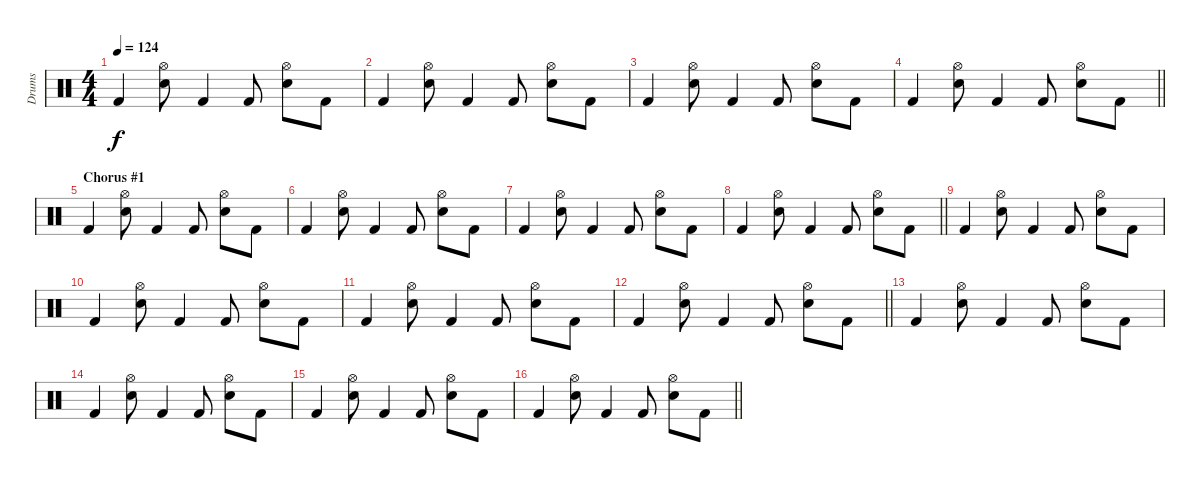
\track ("Drums" "Drums") {instrument percussion}
\staff {score}
\articulation defaults
\ts (4 4)
\tempo 124
\clef neutral
\ks c "Kick (hit) 2".4{dy f}
("Hi-Hat (open)" "Snare (hit) 2").8 "Kick (hit) 2".4 "Kick (hit) 2".8 ("Hi-Hat (open)" "Snare (hit) 2").8 "Kick (hit) 2".8 |
"Kick (hit) 2".4 ("Hi-Hat (open)" "Snare (hit) 2").8 "Kick (hit) 2".4 "Kick (hit) 2".8 ("Hi-Hat (open)" "Snare (hit) 2").8 "Kick (hit) 2".8 |
"Kick (hit) 2".4 ("Hi-Hat (open)" "Snare (hit) 2").8 "Kick (hit) 2".4 "Kick (hit) 2".8 ("Hi-Hat (open)" "Snare (hit) 2").8 "Kick (hit) 2".8 |
\barLineRight lightlight "Kick (hit) 2".4
("Hi-Hat (open)" "Snare (hit) 2").8 "Kick (hit) 2".4 "Kick (hit) 2".8 ("Hi-Hat (open)" "Snare (hit) 2").8 "Kick (hit) 2".8 |
\section ("" "Chorus #1")
"Kick (hit) 2".4 ("Hi-Hat (open)" "Snare (hit) 2").8 "Kick (hit) 2".4 "Kick (hit) 2".8 ("Hi-Hat (open)" "Snare (hit) 2").8 "Kick (hit) 2".8 |
"Kick (hit) 2".4 ("Hi-Hat (open)" "Snare (hit) 2").8 "Kick (hit) 2".4 "Kick (hit) 2".8 ("Hi-Hat (open)" "Snare (hit) 2").8 "Kick (hit) 2".8 |
"Kick (hit) 2".4 ("Hi-Hat (open)" "Snare (hit) 2").8 "Kick (hit) 2".4 "Kick (hit) 2".8 ("Hi-Hat (open)" "Snare (hit) 2").8 "Kick (hit) 2".8 |
\barLineRight lightlight "Kick (hit) 2".4
("Hi-Hat (open)" "Snare (hit) 2").8 "Kick (hit) 2".4 "Kick (hit) 2".8 ("Hi-Hat (open)" "Snare (hit) 2").8 "Kick (hit) 2".8 |
"Kick (hit) 2".4 ("Hi-Hat (open)" "Snare (hit) 2").8 "Kick (hit) 2".4 "Kick (hit) 2".8 ("Hi-Hat (open)" "Snare (hit) 2").8 "Kick (hit) 2".8 |
"Kick (hit) 2".4 ("Hi-Hat (open)" "Snare (hit) 2").8 "Kick (hit) 2".4 "Kick (hit) 2".8 ("Hi-Hat (open)" "Snare (hit) 2").8 "Kick (hit) 2".8 |
"Kick (hit) 2".4 ("Hi-Hat (open)" "Snare (hit) 2").8 "Kick (hit) 2".4 "Kick (hit) 2".8 ("Hi-Hat (open)" "Snare (hit) 2").8 "Kick (hit) 2".8 |
\barLineRight lightlight "Kick (hit) 2".4
("Hi-Hat (open)" "Snare (hit) 2").8 "Kick (hit) 2".4 "Kick (hit) 2".8 ("Hi-Hat (open)" "Snare (hit) 2").8 "Kick (hit) 2".8 |
"Kick (hit) 2".4 ("Hi-Hat (open)" "Snare (hit) 2").8 "Kick (hit) 2".4 "Kick (hit) 2".8 ("Hi-Hat (open)" "Snare (hit) 2").8 "Kick (hit) 2".8 |
"Kick (hit) 2".4 ("Hi-Hat (open)" "Snare (hit) 2").8 "Kick (hit) 2".4 "Kick (hit) 2".8 ("Hi-Hat (open)" "Snare (hit) 2").8 "Kick (hit) 2".8 |
"Kick (hit) 2".4 ("Hi-Hat (open)" "Snare (hit) 2").8 "Kick (hit) 2".4 "Kick (hit) 2".8 ("Hi-Hat (open)" "Snare (hit) 2").8 "Kick (hit) 2".8 |
\barLineRight lightlight "Kick (hit) 2".4
("Hi-Hat (open)" "Snare (hit) 2").8 "Kick (hit) 2".4 "Kick (hit) 2".8 ("Hi-Hat (open)" "Snare (hit) 2").8 "Kick (hit) 2".8
